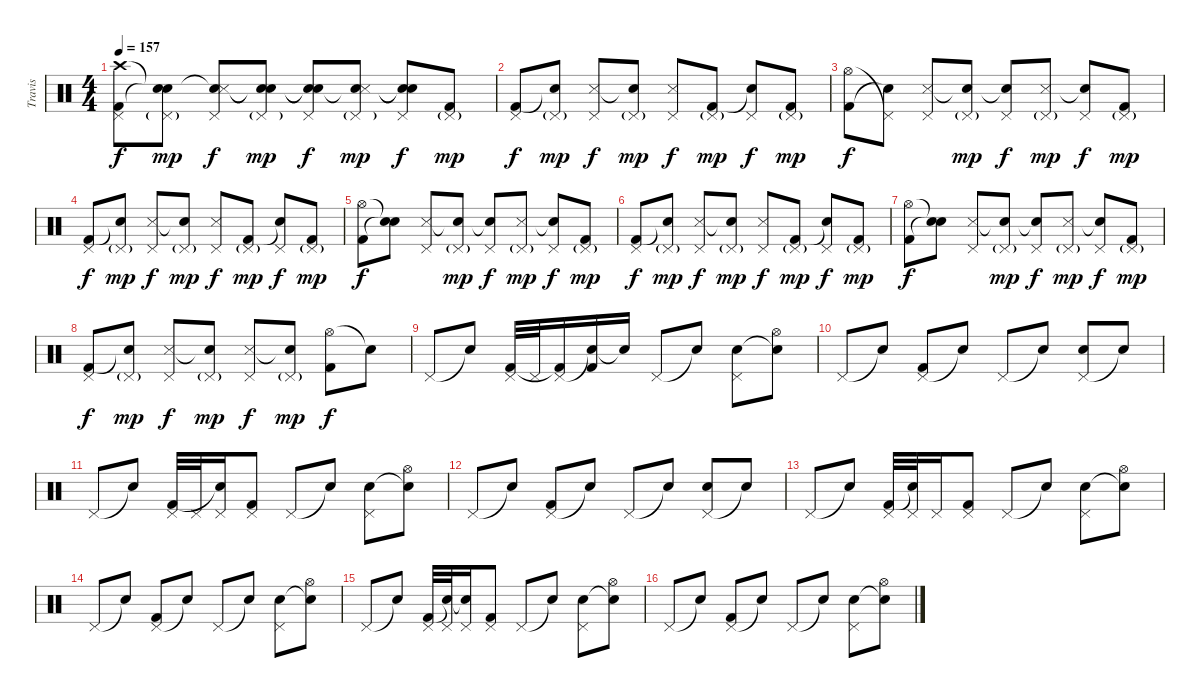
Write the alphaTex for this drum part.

\track ("Travis" "Travis") {instrument percussion}
\staff {score}
\articulation defaults
\ts (4 4)
\tempo 157
\clef neutral
\ks c
("Crash high (hit)" "Pedal Hi-Hat (hit)" "Kick (hit) 2").8{dy f} ("Snare (hit)"{t} "Pedal Hi-Hat (hit)"{g} "Snare (hit)"{t}).8{dy mp} ("Snare (hit)"{t} "Pedal Hi-Hat (hit)" "Snare (side stick) 3").8{dy f} ("Snare (hit)"{t} "Pedal Hi-Hat (hit)"{g} "Snare (hit)"{t}).8{dy mp} ("Snare (hit)"{t} "Pedal Hi-Hat (hit)" "Snare (hit)"{t}).8{dy f} ("Snare (hit)"{t} "Pedal Hi-Hat (hit)"{g} "Snare (side stick) 3").8{dy mp} ("Snare (hit)"{t} "Pedal Hi-Hat (hit)" "Snare (hit)"{t}).8{dy f} ("Pedal Hi-Hat (hit)"{g} "Kick (hit) 2").8{dy mp} |
("Pedal Hi-Hat (hit)" "Kick (hit) 2").8{dy f} ("Pedal Hi-Hat (hit)"{g} "Snare (hit)"{t}).8{dy mp} ("Pedal Hi-Hat (hit)" "Snare (side stick) 3").8{dy f} ("Pedal Hi-Hat (hit)"{g} "Snare (hit)"{t}).8{dy mp} ("Pedal Hi-Hat (hit)" "Snare (side stick) 3").8{dy f} ("Pedal Hi-Hat (hit)"{g} "Kick (hit) 2").8{dy mp} ("Pedal Hi-Hat (hit)" "Snare (hit)"{t}).8{dy f} ("Pedal Hi-Hat (hit)"{g} "Kick (hit) 2").8{dy mp} |
("Hi-Hat (open)" "Kick (hit) 2").8{dy f} ("Pedal Hi-Hat (hit)"{t} "Snare (hit)"{t}).8 ("Pedal Hi-Hat (hit)" "Snare (side stick) 3").8 ("Pedal Hi-Hat (hit)"{g} "Snare (hit)"{t}).8{dy mp} ("Pedal Hi-Hat (hit)" "Snare (hit)"{t}).8{dy f} ("Pedal Hi-Hat (hit)"{g} "Snare (side stick) 3").8{dy mp} ("Pedal Hi-Hat (hit)" "Snare (hit)"{t}).8{dy f} ("Pedal Hi-Hat (hit)"{g} "Kick (hit) 2").8{dy mp} |
("Pedal Hi-Hat (hit)" "Kick (hit) 2").8{dy f} ("Pedal Hi-Hat (hit)"{g} "Snare (hit)"{t}).8{dy mp} ("Pedal Hi-Hat (hit)" "Snare (side stick) 3").8{dy f} ("Pedal Hi-Hat (hit)"{g} "Snare (hit)"{t}).8{dy mp} ("Pedal Hi-Hat (hit)" "Snare (side stick) 3").8{dy f} ("Pedal Hi-Hat (hit)"{g} "Kick (hit) 2").8{dy mp} ("Pedal Hi-Hat (hit)" "Snare (hit)"{t}).8{dy f} ("Pedal Hi-Hat (hit)"{g} "Kick (hit) 2").8{dy mp} |
("Hi-Hat (open)" "Kick (hit) 2").8{dy f} ("Snare (hit)"{t} "Snare (hit)"{t}).8 ("Pedal Hi-Hat (hit)" "Snare (side stick) 3").8 ("Pedal Hi-Hat (hit)"{g} "Snare (hit)"{t}).8{dy mp} ("Pedal Hi-Hat (hit)" "Snare (hit)"{t}).8{dy f} ("Pedal Hi-Hat (hit)"{g} "Snare (side stick) 3").8{dy mp} ("Pedal Hi-Hat (hit)" "Snare (hit)"{t}).8{dy f} ("Pedal Hi-Hat (hit)"{g} "Kick (hit) 2").8{dy mp} |
("Pedal Hi-Hat (hit)" "Kick (hit) 2").8{dy f} ("Pedal Hi-Hat (hit)"{g} "Snare (hit)"{t}).8{dy mp} ("Pedal Hi-Hat (hit)" "Snare (side stick) 3").8{dy f} ("Pedal Hi-Hat (hit)"{g} "Snare (hit)"{t}).8{dy mp} ("Pedal Hi-Hat (hit)" "Snare (side stick) 3").8{dy f} ("Pedal Hi-Hat (hit)"{g} "Kick (hit) 2").8{dy mp} ("Pedal Hi-Hat (hit)" "Snare (hit)"{t}).8{dy f} ("Pedal Hi-Hat (hit)"{g} "Kick (hit) 2").8{dy mp} |
("Hi-Hat (open)" "Kick (hit) 2").8{dy f} ("Snare (hit)"{t} "Snare (hit)"{t}).8 ("Pedal Hi-Hat (hit)" "Snare (side stick) 3").8 ("Pedal Hi-Hat (hit)"{g} "Snare (hit)"{t}).8{dy mp} ("Pedal Hi-Hat (hit)" "Snare (hit)"{t}).8{dy f} ("Pedal Hi-Hat (hit)"{g} "Snare (side stick) 3").8{dy mp} ("Pedal Hi-Hat (hit)" "Snare (hit)"{t}).8{dy f} ("Pedal Hi-Hat (hit)"{g} "Kick (hit) 2").8{dy mp} |
("Pedal Hi-Hat (hit)" "Kick (hit) 2").8{dy f} ("Pedal Hi-Hat (hit)"{g} "Snare (hit)"{t}).8{dy mp} ("Pedal Hi-Hat (hit)" "Snare (side stick) 3").8{dy f} ("Pedal Hi-Hat (hit)"{g} "Snare (hit)"{t}).8{dy mp} ("Pedal Hi-Hat (hit)" "Snare (side stick) 3").8{dy f} ("Pedal Hi-Hat (hit)"{g} "Snare (hit)"{t}).8{dy mp} ("Hi-Hat (open)" "Kick (hit) 2").8{dy f} "Snare (hit)"{t}.8 |
"Pedal Hi-Hat (hit)".8 "Snare (hit)"{t}.8 ("Pedal Hi-Hat (hit)" "Kick (hit) 2").32 "Pedal Hi-Hat (hit)".32 ("Pedal Hi-Hat (hit)" "Kick (hit) 2"{t}).16 ("Snare (hit)"{t} "Kick (hit) 2").16 "Snare (hit)"{t}.16 "Pedal Hi-Hat (hit)".8 "Snare (hit)"{t}.8 ("Pedal Hi-Hat (hit)" "Snare (hit) 2").8 ("Hi-Hat (open)" "Snare (hit)"{t}).8 |
"Pedal Hi-Hat (hit)".8 "Snare (hit)"{t}.8 ("Pedal Hi-Hat (hit)" "Kick (hit) 2").8 "Snare (hit)"{t}.8 "Pedal Hi-Hat (hit)".8 "Snare (hit)"{t}.8 ("Pedal Hi-Hat (hit)" "Snare (hit) 2").8 "Snare (hit)"{t}.8 |
"Pedal Hi-Hat (hit)".8 "Snare (hit)"{t}.8 ("Pedal Hi-Hat (hit)" "Kick (hit) 2").32 "Pedal Hi-Hat (hit)".32 ("Pedal Hi-Hat (hit)" "Snare (hit)"{t}).16 ("Pedal Hi-Hat (hit)" "Kick (hit) 2").8 "Pedal Hi-Hat (hit)".8 "Snare (hit)"{t}.8 ("Pedal Hi-Hat (hit)" "Snare (hit) 2").8 ("Hi-Hat (open)" "Snare (hit)"{t}).8 |
"Pedal Hi-Hat (hit)".8 "Snare (hit)"{t}.8 ("Pedal Hi-Hat (hit)" "Kick (hit) 2").8 "Snare (hit)"{t}.8 "Pedal Hi-Hat (hit)".8 "Snare (hit)"{t}.8 ("Pedal Hi-Hat (hit)" "Snare (hit) 2").8 "Snare (hit)"{t}.8 |
"Pedal Hi-Hat (hit)".8 "Snare (hit)"{t}.8 ("Pedal Hi-Hat (hit)" "Kick (hit) 2").32 ("Pedal Hi-Hat (hit)" "Snare (hit)"{t}).32 "Pedal Hi-Hat (hit)".16 ("Pedal Hi-Hat (hit)" "Kick (hit) 2").8 "Pedal Hi-Hat (hit)".8 "Snare (hit)"{t}.8 ("Pedal Hi-Hat (hit)" "Snare (hit) 2").8 ("Hi-Hat (open)" "Snare (hit)"{t}).8 |
"Pedal Hi-Hat (hit)".8 "Snare (hit)"{t}.8 ("Pedal Hi-Hat (hit)" "Kick (hit) 2").8 "Snare (hit)"{t}.8 "Pedal Hi-Hat (hit)".8 "Snare (hit)"{t}.8 ("Pedal Hi-Hat (hit)" "Snare (hit) 2").8 ("Hi-Hat (open)" "Snare (hit)"{t}).8 |
"Pedal Hi-Hat (hit)".8 "Snare (hit)"{t}.8 ("Pedal Hi-Hat (hit)" "Kick (hit) 2").32 ("Pedal Hi-Hat (hit)" "Snare (hit)"{t}).32 ("Pedal Hi-Hat (hit)" "Snare (hit)"{t}).16 ("Pedal Hi-Hat (hit)" "Kick (hit) 2").8 "Pedal Hi-Hat (hit)".8 "Snare (hit)"{t}.8 ("Pedal Hi-Hat (hit)" "Snare (hit) 2").8 ("Hi-Hat (open)" "Snare (hit)"{t}).8 |
"Pedal Hi-Hat (hit)".8 "Snare (hit)"{t}.8 ("Pedal Hi-Hat (hit)" "Kick (hit) 2").8 "Snare (hit)"{t}.8 "Pedal Hi-Hat (hit)".8 "Snare (hit)"{t}.8 ("Pedal Hi-Hat (hit)" "Snare (hit) 2").8 ("Hi-Hat (open)" "Snare (hit)"{t}).8
